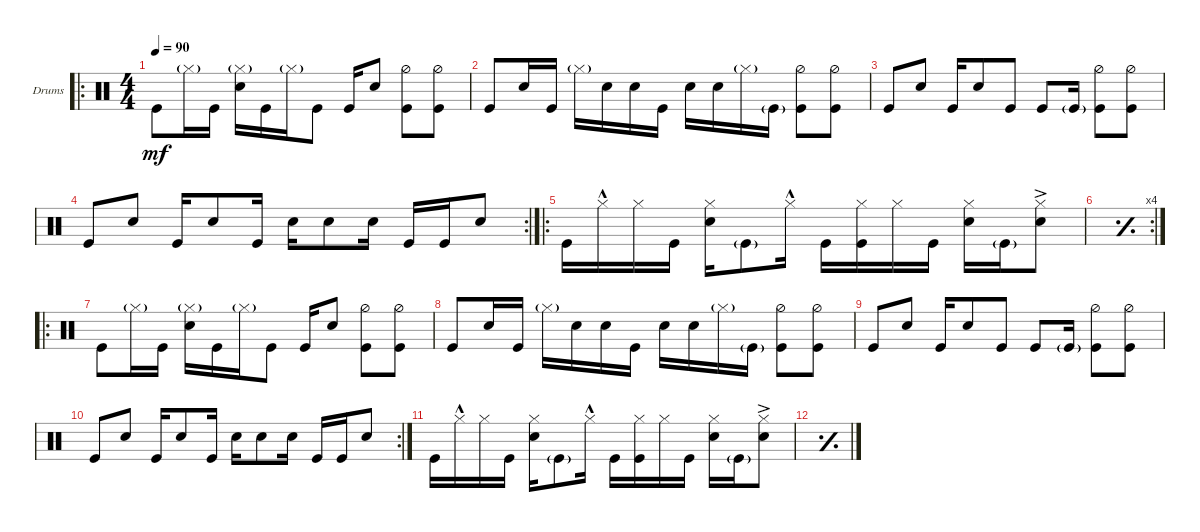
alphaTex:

\bracketExtendMode groupsimilarinstruments
\firstSystemTrackNameOrientation horizontal
\otherSystemsTrackNameOrientation horizontal
\track ("Drumkit" "Drums") {instrument percussion}
\staff {score}
\articulation defaults
\ro
\ts (4 4)
\tempo 90
\clef neutral
\scale
0.482759
\ks c "Kick (hit)".8{dy mf} "Hi-Hat (closed)"{g}.16 "Kick (hit)".16
("Snare (hit) 2" "Hi-Hat (closed)"{g}).16 "Kick (hit)".16 "Hi-Hat (closed)"{g}.16 "Kick (hit)".8 "Kick (hit)".16 "Snare (hit) 2".8 ("Kick (hit)" "Hi-Hat (half)").8 ("Kick (hit)" "Hi-Hat (half)").8 |
"Kick (hit)".8 "Snare (hit) 2".16 "Kick (hit)".16 "Hi-Hat (closed)"{g}.16 "Snare (hit) 2".16 "Snare (hit) 2".16 "Kick (hit)".16 "Snare (hit) 2".16 "Snare (hit) 2".16 "Hi-Hat (closed)"{g}.16 "Kick (hit)"{g}.16 ("Kick (hit)" "Hi-Hat (half)").8 ("Kick (hit)" "Hi-Hat (half)").8 |
\scale
0.301587 "Kick (hit)".8 "Snare (hit) 2".8 "Kick (hit)".16 "Snare (hit) 2".8 "Kick (hit)".8 "Kick (hit)".8 "Kick (hit)"{g}.16 ("Kick (hit)" "Hi-Hat (half)").8 ("Kick (hit)" "Hi-Hat (half)").8 |
\rc 2
\scale
0.333333 "Kick (hit)".8 "Snare (hit) 2".8 "Kick (hit)".16 "Snare (hit) 2".8 "Kick (hit)".16 "Snare (hit) 2".16 "Snare (hit) 2".8 "Snare (hit) 2".16 "Kick (hit)".16 "Kick (hit)".16 "Snare (hit) 2".8 |
\ro
\scale
0.365079 "Kick (hit)".16 "Hi-Hat (closed)"{hac}.16 "Hi-Hat (closed)".16 "Kick (hit)".16 ("Snare (hit) 2" "Hi-Hat (closed)").16 "Kick (hit)"{g}.8 "Hi-Hat (closed)"{hac}.16 "Kick (hit)".16 ("Kick (hit)" "Hi-Hat (closed)").16 "Hi-Hat (closed)".16 "Kick (hit)".16 ("Snare (hit) 2" "Hi-Hat (closed)").16 "Kick (hit)"{g}.16 ("Hi-Hat (closed)" "Snare (hit) 2"{ac}).8 |
\rc 4
\simile simple
\scale
0.333333 |
\ro
\simile none
\scale
0.365079 "Kick (hit)".8 "Hi-Hat (closed)"{g}.16 "Kick (hit)".16 ("Snare (hit) 2" "Hi-Hat (closed)"{g}).16 "Kick (hit)".16 "Hi-Hat (closed)"{g}.16 "Kick (hit)".8 "Kick (hit)".16 "Snare (hit) 2".8 ("Kick (hit)" "Hi-Hat (half)").8 ("Kick (hit)" "Hi-Hat (half)").8 |
\scale
0.301587 "Kick (hit)".8 "Snare (hit) 2".16 "Kick (hit)".16 "Hi-Hat (closed)"{g}.16 "Snare (hit) 2".16 "Snare (hit) 2".16 "Kick (hit)".16 "Snare (hit) 2".16 "Snare (hit) 2".16 "Hi-Hat (closed)"{g}.16 "Kick (hit)"{g}.16 ("Kick (hit)" "Hi-Hat (half)").8 ("Kick (hit)" "Hi-Hat (half)").8 |
\scale
0.322034 "Kick (hit)".8 "Snare (hit) 2".8 "Kick (hit)".16 "Snare (hit) 2".8 "Kick (hit)".8 "Kick (hit)".8 "Kick (hit)"{g}.16 ("Kick (hit)" "Hi-Hat (half)").8 ("Kick (hit)" "Hi-Hat (half)").8 |
\rc 2
\scale
0.355932 "Kick (hit)".8 "Snare (hit) 2".8 "Kick (hit)".16 "Snare (hit) 2".8 "Kick (hit)".16 "Snare (hit) 2".16 "Snare (hit) 2".8 "Snare (hit) 2".16 "Kick (hit)".16 "Kick (hit)".16 "Snare (hit) 2".8 |
\scale
0.322034 "Kick (hit)".16 "Hi-Hat (closed)"{hac}.16 "Hi-Hat (closed)".16 "Kick (hit)".16 ("Snare (hit) 2" "Hi-Hat (closed)").16 "Kick (hit)"{g}.8 "Hi-Hat (closed)"{hac}.16 "Kick (hit)".16 ("Kick (hit)" "Hi-Hat (closed)").16 "Hi-Hat (closed)".16 "Kick (hit)".16 ("Snare (hit) 2" "Hi-Hat (closed)").16 "Kick (hit)"{g}.16 ("Hi-Hat (closed)" "Snare (hit) 2"{ac}).8 |
\simile simple
